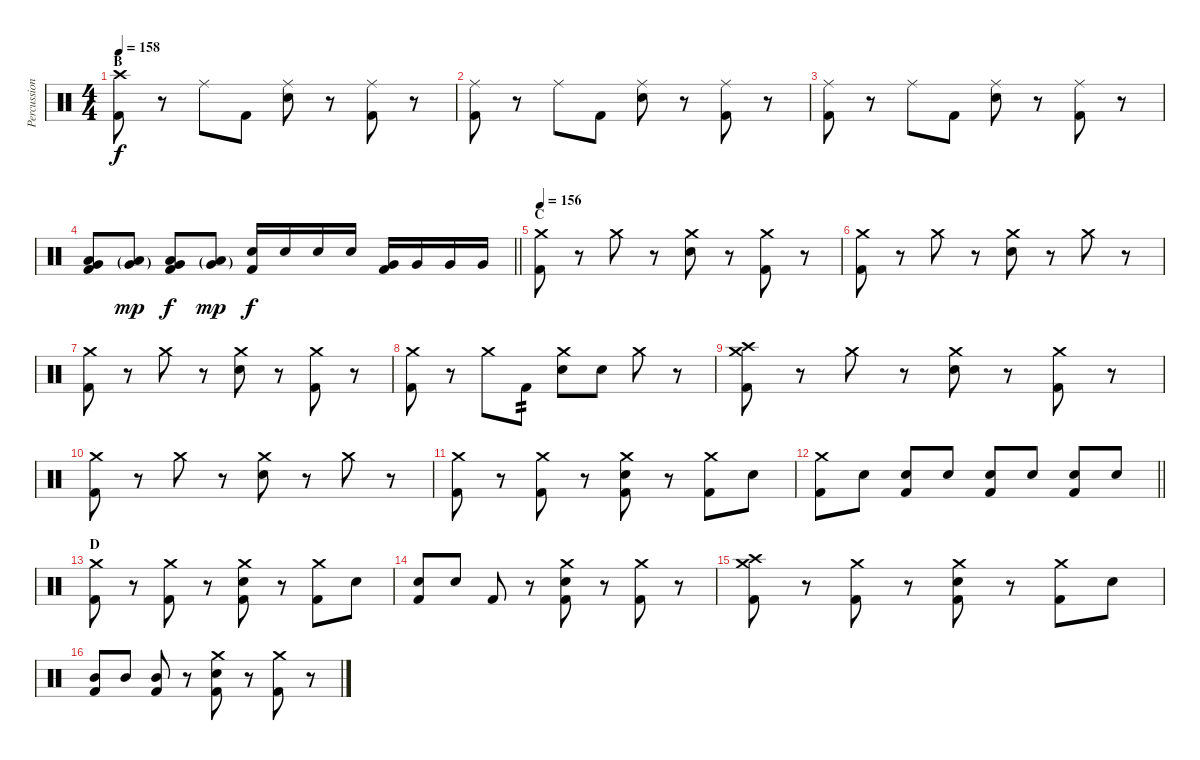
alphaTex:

\track ("Percussion" "Percussion") {instrument percussion}
\staff {score}
\articulation defaults
\ts (4 4)
\section ("" "B")
\tempo 158
\clef neutral
\ks c
("Crash high (hit)" "Kick (hit) 2").8{dy f} r.8 "Ride (middle)".8 "Kick (hit) 2".8 ("Ride (middle)" "Snare (hit) 2").8 r.8 ("Ride (middle)" "Kick (hit) 2").8 r.8 |
("Ride (middle)" "Kick (hit) 2").8 r.8 "Ride (middle)".8 "Kick (hit) 2".8 ("Ride (middle)" "Snare (hit) 2").8 r.8 ("Ride (middle)" "Kick (hit) 2").8 r.8 |
("Ride (middle)" "Kick (hit) 2").8 r.8 "Ride (middle)".8 "Kick (hit) 2".8 ("Ride (middle)" "Snare (hit) 2").8 r.8 ("Ride (middle)" "Kick (hit) 2").8 r.8 |
\barLineRight lightlight
("Low Tom (hit)" "Very Low Tom (hit)" "Kick (hit) 2").8 ("Low Tom (hit)"{g} "Very Low Tom (hit)"{g}).8{dy mp} ("Low Tom (hit)" "Very Low Tom (hit)" "Kick (hit) 2").8{dy f} ("Low Tom (hit)"{g} "Very Low Tom (hit)"{g}).8{dy mp} ("Snare (hit) 2" "Kick (hit) 2").16{dy f} "Snare (hit) 2".16 "Snare (hit) 2".16 "Snare (hit) 2".16 ("Very Low Tom (hit)" "Kick (hit) 2").16 "Very Low Tom (hit)".16 "Very Low Tom (hit)".16 "Very Low Tom (hit)".16 |
\section ("" "C")
\tempo 156
("Crash medium (hit)" "Kick (hit) 2").8 r.8 "Crash medium (hit)".8 r.8 ("Crash medium (hit)" "Snare (hit) 2").8 r.8 ("Crash medium (hit)" "Kick (hit) 2").8 r.8 |
("Crash medium (hit)" "Kick (hit) 2").8 r.8 "Crash medium (hit)".8 r.8 ("Crash medium (hit)" "Snare (hit) 2").8 r.8 "Crash medium (hit)".8 r.8 |
("Crash medium (hit)" "Kick (hit) 2").8 r.8 "Crash medium (hit)".8 r.8 ("Crash medium (hit)" "Snare (hit) 2").8 r.8 ("Crash medium (hit)" "Kick (hit) 2").8 r.8 |
("Crash medium (hit)" "Kick (hit) 2").8 r.8 "Crash medium (hit)".8 "Kick (hit) 2".8{tp 2} ("Crash medium (hit)" "Snare (hit) 2").8 "Snare (hit) 2".8 "Crash medium (hit)".8 r.8 |
("Crash high (hit)" "Crash medium (hit)" "Kick (hit) 2").8 r.8 "Crash medium (hit)".8 r.8 ("Crash medium (hit)" "Snare (hit) 2").8 r.8 ("Crash medium (hit)" "Kick (hit) 2").8 r.8 |
("Crash medium (hit)" "Kick (hit) 2").8 r.8 "Crash medium (hit)".8 r.8 ("Crash medium (hit)" "Snare (hit) 2").8 r.8 "Crash medium (hit)".8 r.8 |
("Crash medium (hit)" "Kick (hit) 2").8 r.8 ("Crash medium (hit)" "Kick (hit) 2").8 r.8 ("Crash medium (hit)" "Snare (hit) 2" "Kick (hit) 2").8 r.8 ("Crash medium (hit)" "Kick (hit) 2").8 "Snare (hit) 2".8 |
\barLineRight lightlight
("Crash medium (hit)" "Kick (hit) 2").8 "Snare (hit) 2".8 ("Snare (hit) 2" "Kick (hit) 2").8 "Snare (hit) 2".8 ("Snare (hit) 2" "Kick (hit) 2").8 "Snare (hit) 2".8 ("Snare (hit) 2" "Kick (hit) 2").8 "Snare (hit) 2".8 |
\section ("" "D")
("Crash medium (hit)" "Kick (hit) 2").8 r.8 ("Crash medium (hit)" "Kick (hit) 2").8 r.8 ("Crash medium (hit)" "Snare (hit) 2" "Kick (hit) 2").8 r.8 ("Crash medium (hit)" "Kick (hit) 2").8 "Snare (hit) 2".8 |
("Snare (hit) 2" "Kick (hit) 2").8 "Snare (hit) 2".8 "Kick (hit) 2".8 r.8 ("Crash medium (hit)" "Snare (hit) 2" "Kick (hit) 2").8 r.8 ("Crash medium (hit)" "Kick (hit) 2").8 r.8 |
("Crash high (hit)" "Crash medium (hit)" "Kick (hit) 2").8 r.8 ("Crash medium (hit)" "Kick (hit) 2").8 r.8 ("Crash medium (hit)" "Snare (hit) 2" "Kick (hit) 2").8 r.8 ("Crash medium (hit)" "Kick (hit) 2").8 "Snare (hit) 2".8 |
("Mid Tom (hit)" "Kick (hit) 2").8 "Mid Tom (hit)".8 ("Mid Tom (hit)" "Kick (hit) 2").8 r.8 ("Crash medium (hit)" "Snare (hit) 2" "Kick (hit) 2").8 r.8 ("Crash medium (hit)" "Kick (hit) 2").8 r.8
